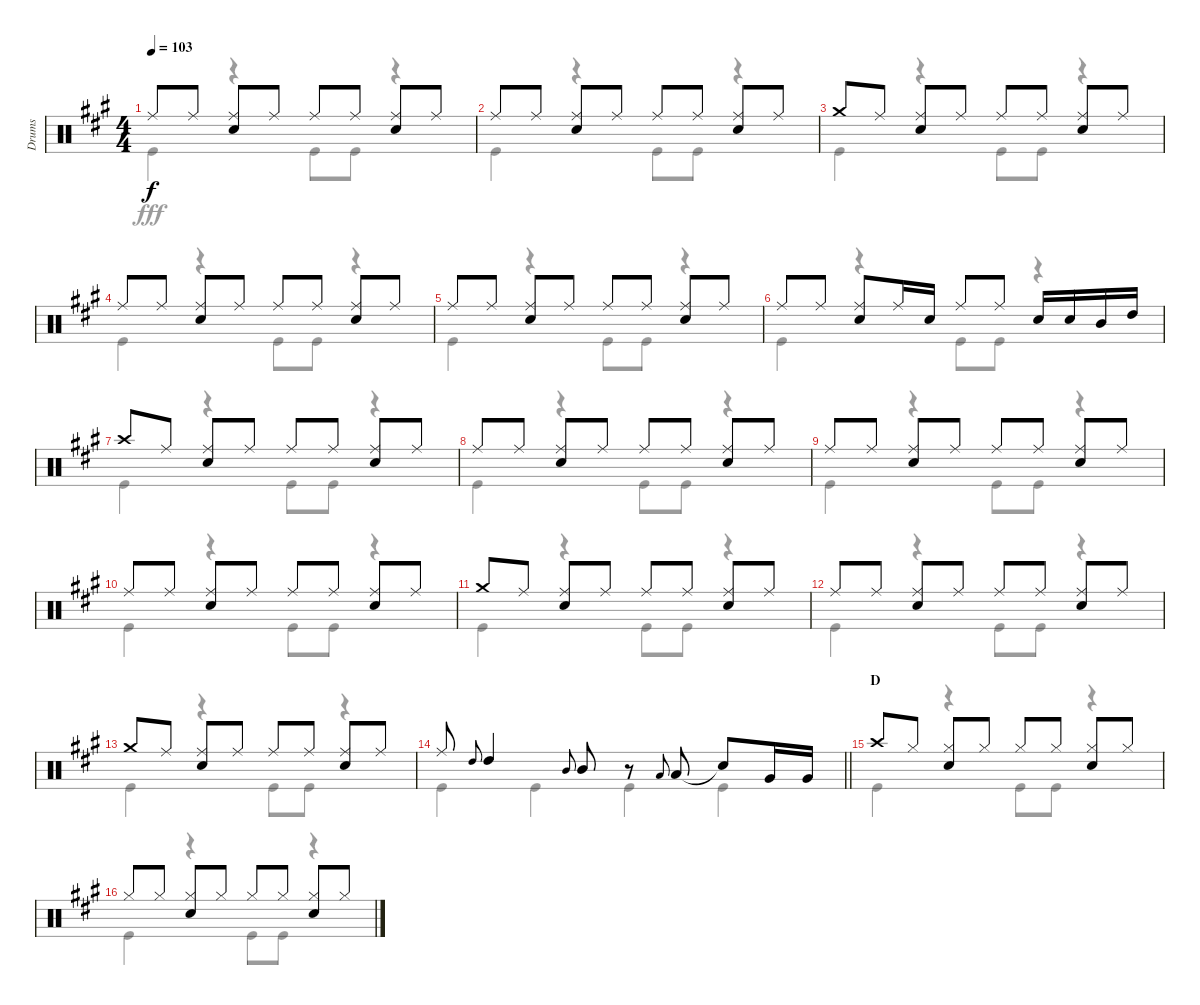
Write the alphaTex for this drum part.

\track ("Drums" "Drums") {instrument percussion}
\staff {score}
\articulation defaults
\voice
\ts (4 4)
\tempo 103
\clef neutral
\ks a "Ride (middle)".8{dy f} "Ride (middle)".8
("Ride (middle)" "Snare (hit) 2").8 "Ride (middle)".8 "Ride (middle)".8 "Ride (middle)".8 ("Ride (middle)" "Snare (hit) 2").8 "Ride (middle)".8 |
"Ride (middle)".8 "Ride (middle)".8 ("Ride (middle)" "Snare (hit) 2").8 "Ride (middle)".8 "Ride (middle)".8 "Ride (middle)".8 ("Ride (middle)" "Snare (hit) 2").8 "Ride (middle)".8 |
"Crash medium (hit)".8 "Ride (middle)".8 ("Ride (middle)" "Snare (hit) 2").8 "Ride (middle)".8 "Ride (middle)".8 "Ride (middle)".8 ("Ride (middle)" "Snare (hit) 2").8 "Ride (middle)".8 |
"Ride (middle)".8 "Ride (middle)".8 ("Ride (middle)" "Snare (hit) 2").8 "Ride (middle)".8 "Ride (middle)".8 "Ride (middle)".8 ("Ride (middle)" "Snare (hit) 2").8 "Ride (middle)".8 |
"Ride (middle)".8 "Ride (middle)".8 ("Ride (middle)" "Snare (hit) 2").8 "Ride (middle)".8 "Ride (middle)".8 "Ride (middle)".8 ("Ride (middle)" "Snare (hit) 2").8 "Ride (middle)".8 |
"Ride (middle)".8 "Ride (middle)".8 ("Ride (middle)" "Snare (hit) 2").8 "Ride (middle)".16 "Snare (hit) 2".16 "Ride (middle)".8 "Ride (middle)".8 "Snare (hit) 2".16 "Snare (hit) 2".16 "Mid Tom (hit)".16 "High Tom (hit)".16 |
"Crash high (hit)".8 "Ride (middle)".8 ("Ride (middle)" "Snare (hit) 2").8 "Ride (middle)".8 "Ride (middle)".8 "Ride (middle)".8 ("Ride (middle)" "Snare (hit) 2").8 "Ride (middle)".8 |
"Ride (middle)".8 "Ride (middle)".8 ("Ride (middle)" "Snare (hit) 2").8 "Ride (middle)".8 "Ride (middle)".8 "Ride (middle)".8 ("Ride (middle)" "Snare (hit) 2").8 "Ride (middle)".8 |
"Ride (middle)".8 "Ride (middle)".8 ("Ride (middle)" "Snare (hit) 2").8 "Ride (middle)".8 "Ride (middle)".8 "Ride (middle)".8 ("Ride (middle)" "Snare (hit) 2").8 "Ride (middle)".8 |
"Ride (middle)".8 "Ride (middle)".8 ("Ride (middle)" "Snare (hit) 2").8 "Ride (middle)".8 "Ride (middle)".8 "Ride (middle)".8 ("Ride (middle)" "Snare (hit) 2").8 "Ride (middle)".8 |
"Crash medium (hit)".8 "Ride (middle)".8 ("Ride (middle)" "Snare (hit) 2").8 "Ride (middle)".8 "Ride (middle)".8 "Ride (middle)".8 ("Ride (middle)" "Snare (hit) 2").8 "Ride (middle)".8 |
"Ride (middle)".8 "Ride (middle)".8 ("Ride (middle)" "Snare (hit) 2").8 "Ride (middle)".8 "Ride (middle)".8 "Ride (middle)".8 ("Ride (middle)" "Snare (hit) 2").8 "Ride (middle)".8 |
"Crash medium (hit)".8 "Ride (middle)".8 ("Ride (middle)" "Snare (hit) 2").8 "Ride (middle)".8 "Ride (middle)".8 "Ride (middle)".8 ("Ride (middle)" "Snare (hit) 2").8 "Ride (middle)".8 |
\barLineRight lightlight "Ride (middle)".8 "High Tom (hit)".8{gr onbeat} "High Tom (hit)".4 "Mid Tom (hit)".8{gr onbeat} "Mid Tom (hit)".8
r.8 "Low Tom (hit)".8{gr onbeat} "Low Tom (hit)".8 "Snare (hit)"{t}.8 "Very Low Tom (hit)".16 "Very Low Tom (hit)".16 |
\section ("" "D")
"Crash high (hit)".8 "Hi-Hat (closed)".8 ("Hi-Hat (closed)" "Snare (hit) 2").8 "Hi-Hat (closed)".8 "Hi-Hat (closed)".8 "Hi-Hat (closed)".8 ("Hi-Hat (closed)" "Snare (hit) 2").8 "Hi-Hat (closed)".8 |
"Hi-Hat (closed)".8 "Hi-Hat (closed)".8 ("Hi-Hat (closed)" "Snare (hit) 2").8 "Hi-Hat (closed)".8 "Hi-Hat (closed)".8 "Hi-Hat (closed)".8 ("Hi-Hat (closed)" "Snare (hit) 2").8 "Hi-Hat (closed)".8
\voice
\clef neutral
\ottava regular
\simile none
\ks a "Kick (hit)".4{dy fff}
r.4 "Kick (hit)".8 "Kick (hit)".8 r.4 |
"Kick (hit)".4 r.4 "Kick (hit)".8 "Kick (hit)".8 r.4 |
"Kick (hit)".4 r.4 "Kick (hit)".8 "Kick (hit)".8 r.4 |
"Kick (hit)".4 r.4 "Kick (hit)".8 "Kick (hit)".8 r.4 |
"Kick (hit)".4 r.4 "Kick (hit)".8 "Kick (hit)".8 r.4 |
"Kick (hit)".4 r.4 "Kick (hit)".8 "Kick (hit)".8 r.4 |
"Kick (hit)".4 r.4 "Kick (hit)".8 "Kick (hit)".8 r.4 |
"Kick (hit)".4 r.4 "Kick (hit)".8 "Kick (hit)".8 r.4 |
"Kick (hit)".4 r.4 "Kick (hit)".8 "Kick (hit)".8 r.4 |
"Kick (hit)".4 r.4 "Kick (hit)".8 "Kick (hit)".8 r.4 |
"Kick (hit)".4 r.4 "Kick (hit)".8 "Kick (hit)".8 r.4 |
"Kick (hit)".4 r.4 "Kick (hit)".8 "Kick (hit)".8 r.4 |
"Kick (hit)".4 r.4 "Kick (hit)".8 "Kick (hit)".8 r.4 |
\barLineRight lightlight "Kick (hit)".4 "Kick (hit)".4 "Kick (hit)".4 "Kick (hit)".4
|
"Kick (hit)".4 r.4 "Kick (hit)".8 "Kick (hit)".8 r.4 |
"Kick (hit)".4 r.4 "Kick (hit)".8 "Kick (hit)".8 r.4
